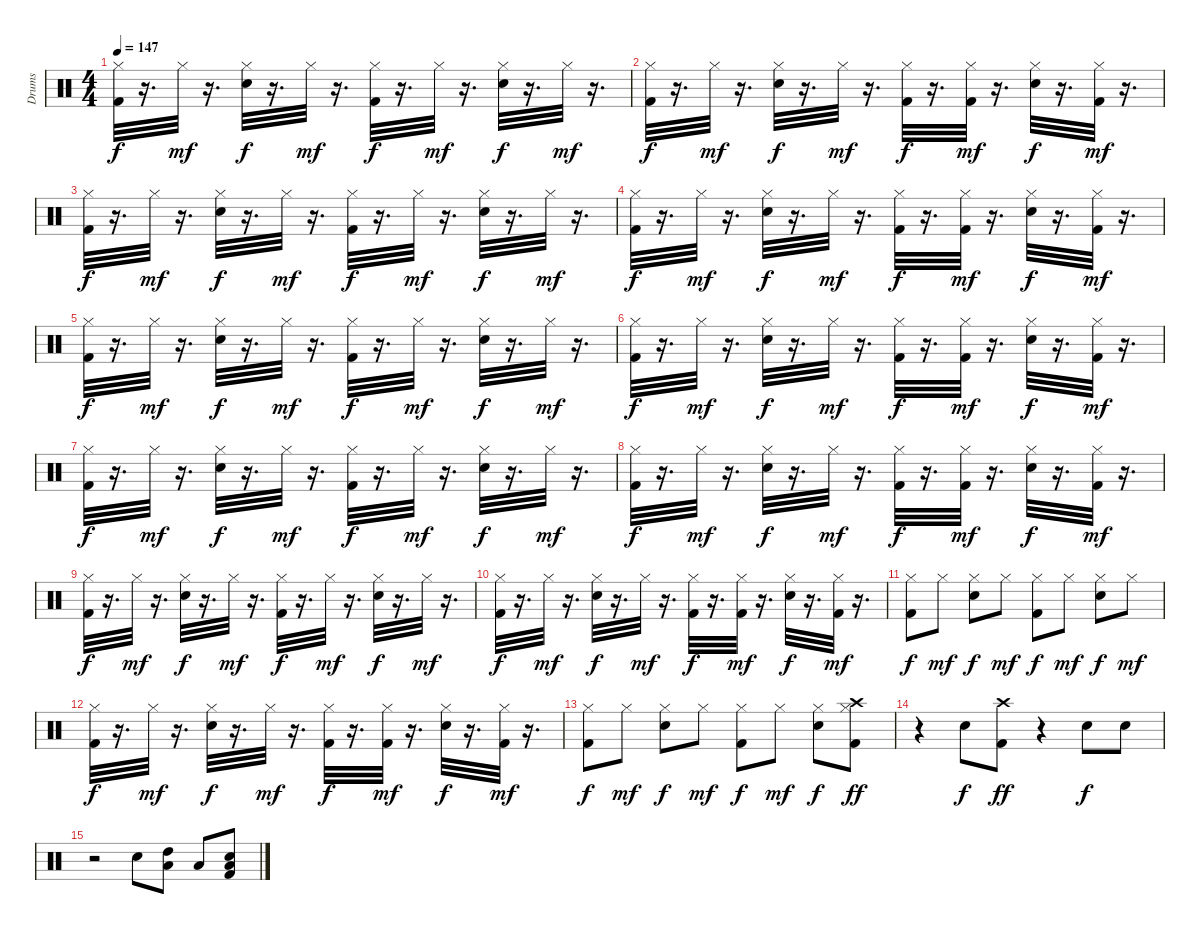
\track ("Drums" "Drums") {instrument percussion}
\staff {score}
\articulation defaults
\ts (4 4)
\tempo 147
\clef neutral
\ks c
("Kick (hit) 2" "Hi-Hat (closed)").32{dy f} r.16{d} "Hi-Hat (closed)".32{dy mf} r.16{d} ("Snare (hit) 2" "Hi-Hat (closed)").32{dy f} r.16{d} "Hi-Hat (closed)".32{dy mf} r.16{d} ("Kick (hit) 2" "Hi-Hat (closed)").32{dy f} r.16{d} "Hi-Hat (closed)".32{dy mf} r.16{d} ("Snare (hit) 2" "Hi-Hat (closed)").32{dy f} r.16{d} "Hi-Hat (closed)".32{dy mf} r.16{d} |
("Kick (hit) 2" "Hi-Hat (closed)").32{dy f} r.16{d} "Hi-Hat (closed)".32{dy mf} r.16{d} ("Snare (hit) 2" "Hi-Hat (closed)").32{dy f} r.16{d} "Hi-Hat (closed)".32{dy mf} r.16{d} ("Kick (hit) 2" "Hi-Hat (closed)").32{dy f} r.16{d} ("Kick (hit) 2" "Hi-Hat (closed)").32{dy mf} r.16{d} ("Snare (hit) 2" "Hi-Hat (closed)").32{dy f} r.16{d} ("Kick (hit) 2" "Hi-Hat (closed)").32{dy mf} r.16{d} |
("Kick (hit) 2" "Hi-Hat (closed)").32{dy f} r.16{d} "Hi-Hat (closed)".32{dy mf} r.16{d} ("Snare (hit) 2" "Hi-Hat (closed)").32{dy f} r.16{d} "Hi-Hat (closed)".32{dy mf} r.16{d} ("Kick (hit) 2" "Hi-Hat (closed)").32{dy f} r.16{d} "Hi-Hat (closed)".32{dy mf} r.16{d} ("Snare (hit) 2" "Hi-Hat (closed)").32{dy f} r.16{d} "Hi-Hat (closed)".32{dy mf} r.16{d} |
("Kick (hit) 2" "Hi-Hat (closed)").32{dy f} r.16{d} "Hi-Hat (closed)".32{dy mf} r.16{d} ("Snare (hit) 2" "Hi-Hat (closed)").32{dy f} r.16{d} "Hi-Hat (closed)".32{dy mf} r.16{d} ("Kick (hit) 2" "Hi-Hat (closed)").32{dy f} r.16{d} ("Kick (hit) 2" "Hi-Hat (closed)").32{dy mf} r.16{d} ("Snare (hit) 2" "Hi-Hat (closed)").32{dy f} r.16{d} ("Kick (hit) 2" "Hi-Hat (closed)").32{dy mf} r.16{d} |
("Kick (hit) 2" "Hi-Hat (closed)").32{dy f} r.16{d} "Hi-Hat (closed)".32{dy mf} r.16{d} ("Snare (hit) 2" "Hi-Hat (closed)").32{dy f} r.16{d} "Hi-Hat (closed)".32{dy mf} r.16{d} ("Kick (hit) 2" "Hi-Hat (closed)").32{dy f} r.16{d} "Hi-Hat (closed)".32{dy mf} r.16{d} ("Snare (hit) 2" "Hi-Hat (closed)").32{dy f} r.16{d} "Hi-Hat (closed)".32{dy mf} r.16{d} |
("Kick (hit) 2" "Hi-Hat (closed)").32{dy f} r.16{d} "Hi-Hat (closed)".32{dy mf} r.16{d} ("Snare (hit) 2" "Hi-Hat (closed)").32{dy f} r.16{d} "Hi-Hat (closed)".32{dy mf} r.16{d} ("Kick (hit) 2" "Hi-Hat (closed)").32{dy f} r.16{d} ("Kick (hit) 2" "Hi-Hat (closed)").32{dy mf} r.16{d} ("Snare (hit) 2" "Hi-Hat (closed)").32{dy f} r.16{d} ("Kick (hit) 2" "Hi-Hat (closed)").32{dy mf} r.16{d} |
("Kick (hit) 2" "Hi-Hat (closed)").32{dy f} r.16{d} "Hi-Hat (closed)".32{dy mf} r.16{d} ("Snare (hit) 2" "Hi-Hat (closed)").32{dy f} r.16{d} "Hi-Hat (closed)".32{dy mf} r.16{d} ("Kick (hit) 2" "Hi-Hat (closed)").32{dy f} r.16{d} "Hi-Hat (closed)".32{dy mf} r.16{d} ("Snare (hit) 2" "Hi-Hat (closed)").32{dy f} r.16{d} "Hi-Hat (closed)".32{dy mf} r.16{d} |
("Kick (hit) 2" "Hi-Hat (closed)").32{dy f} r.16{d} "Hi-Hat (closed)".32{dy mf} r.16{d} ("Snare (hit) 2" "Hi-Hat (closed)").32{dy f} r.16{d} "Hi-Hat (closed)".32{dy mf} r.16{d} ("Kick (hit) 2" "Hi-Hat (closed)").32{dy f} r.16{d} ("Kick (hit) 2" "Hi-Hat (closed)").32{dy mf} r.16{d} ("Snare (hit) 2" "Hi-Hat (closed)").32{dy f} r.16{d} ("Kick (hit) 2" "Hi-Hat (closed)").32{dy mf} r.16{d} |
("Kick (hit) 2" "Hi-Hat (closed)").32{dy f} r.16{d} "Hi-Hat (closed)".32{dy mf} r.16{d} ("Snare (hit) 2" "Hi-Hat (closed)").32{dy f} r.16{d} "Hi-Hat (closed)".32{dy mf} r.16{d} ("Kick (hit) 2" "Hi-Hat (closed)").32{dy f} r.16{d} "Hi-Hat (closed)".32{dy mf} r.16{d} ("Snare (hit) 2" "Hi-Hat (closed)").32{dy f} r.16{d} "Hi-Hat (closed)".32{dy mf} r.16{d} |
("Kick (hit) 2" "Hi-Hat (closed)").32{dy f} r.16{d} "Hi-Hat (closed)".32{dy mf} r.16{d} ("Snare (hit) 2" "Hi-Hat (closed)").32{dy f} r.16{d} "Hi-Hat (closed)".32{dy mf} r.16{d} ("Kick (hit) 2" "Hi-Hat (closed)").32{dy f} r.16{d} ("Kick (hit) 2" "Hi-Hat (closed)").32{dy mf} r.16{d} ("Snare (hit) 2" "Hi-Hat (closed)").32{dy f} r.16{d} ("Kick (hit) 2" "Hi-Hat (closed)").32{dy mf} r.16{d} |
("Hi-Hat (closed)" "Kick (hit) 2").8{dy f} "Hi-Hat (closed)".8{dy mf} ("Hi-Hat (closed)" "Snare (hit) 2").8{dy f} "Hi-Hat (closed)".8{dy mf} ("Hi-Hat (closed)" "Kick (hit) 2").8{dy f} "Hi-Hat (closed)".8{dy mf} ("Hi-Hat (closed)" "Snare (hit) 2").8{dy f} "Hi-Hat (closed)".8{dy mf} |
("Kick (hit) 2" "Hi-Hat (closed)").32{dy f} r.16{d} "Hi-Hat (closed)".32{dy mf} r.16{d} ("Snare (hit) 2" "Hi-Hat (closed)").32{dy f} r.16{d} "Hi-Hat (closed)".32{dy mf} r.16{d} ("Kick (hit) 2" "Hi-Hat (closed)").32{dy f} r.16{d} ("Kick (hit) 2" "Hi-Hat (closed)").32{dy mf} r.16{d} ("Snare (hit) 2" "Hi-Hat (closed)").32{dy f} r.16{d} ("Kick (hit) 2" "Hi-Hat (closed)").32{dy mf} r.16{d} |
("Kick (hit) 2" "Hi-Hat (closed)").8{dy f} "Hi-Hat (closed)".8{dy mf} ("Snare (hit) 2" "Hi-Hat (closed)").8{dy f} "Hi-Hat (closed)".8{dy mf} ("Kick (hit) 2" "Hi-Hat (closed)").8{dy f} "Hi-Hat (closed)".8{dy mf} ("Snare (hit) 2" "Hi-Hat (closed)").8{dy f} ("Kick (hit) 2" "Hi-Hat (closed)" "Crash high (hit)").8{dy ff} |
r.4 "Snare (hit) 2".8{dy f} ("Crash high (hit)" "Kick (hit) 2").8{dy ff} r.4 "Snare (hit) 2".8{dy f} "Snare (hit) 2".8 |
r.2 "Snare (hit) 2".8 ("High Tom (hit)" "Low Tom (hit)").8 "Low Tom (hit)".8 ("Low Floor Tom (hit)" "Snare (hit) 2" "Kick (hit) 2").8
